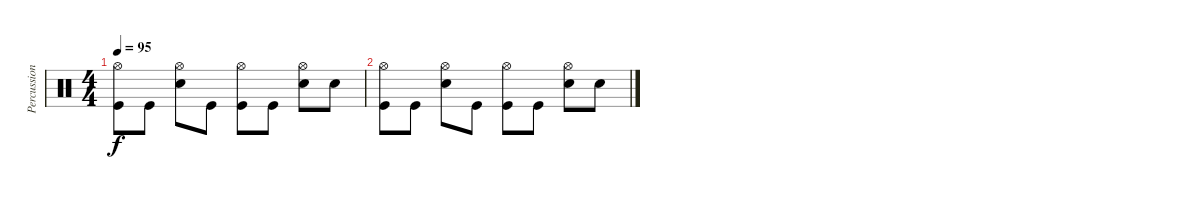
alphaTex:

\track ("Percussion" "Percussion") {instrument percussion}
\staff {score}
\articulation defaults
\ts (4 4)
\tempo 95
\clef neutral
\ks c
("Kick (hit)" "Hi-Hat (open)").8{dy f} "Kick (hit)".8 ("Snare (hit) 2" "Hi-Hat (open)").8 "Kick (hit)".8 ("Kick (hit)" "Hi-Hat (open)").8 "Kick (hit)".8 ("Snare (hit) 2" "Hi-Hat (open)").8 "Snare (hit) 2".8 |
("Kick (hit)" "Hi-Hat (open)").8 "Kick (hit)".8 ("Snare (hit) 2" "Hi-Hat (open)").8 "Kick (hit)".8 ("Kick (hit)" "Hi-Hat (open)").8 "Kick (hit)".8 ("Snare (hit) 2" "Hi-Hat (open)").8 "Snare (hit) 2".8
